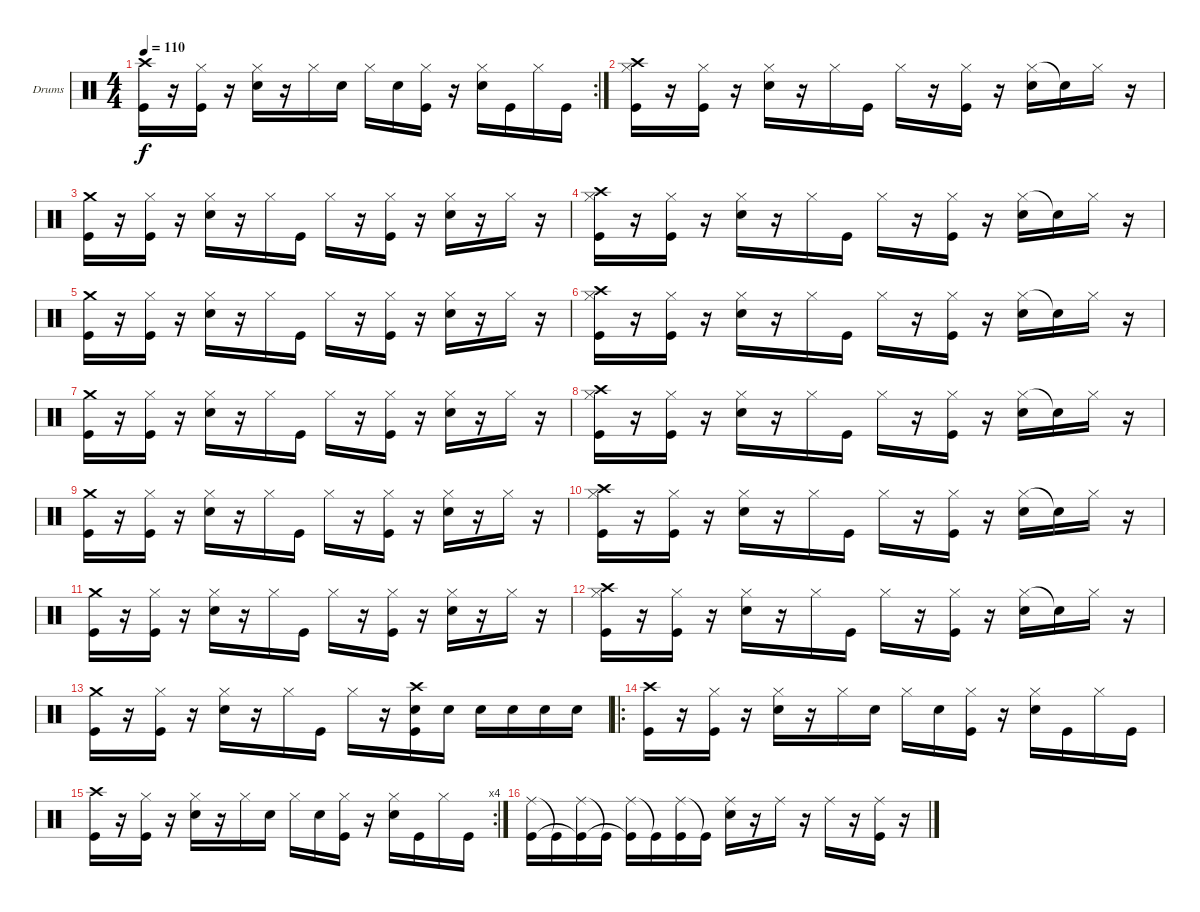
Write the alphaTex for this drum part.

\defaultSystemsLayout 4
\bracketExtendMode groupsimilarinstruments
\firstSystemTrackNameOrientation horizontal
\otherSystemsTrackNameOrientation horizontal
\track ("Павел Тетерин(Pa$ok)" "Drums") {instrument percussion}
\staff {score}
\articulation defaults
\rc 2
\ts (4 4)
\tempo 110
\clef neutral
\ks c
("Crash high (hit)" "Kick (hit)").16{dy f} r.16 ("Hi-Hat (closed)" "Kick (hit)").16 r.16 ("Hi-Hat (closed)" "Snare (hit) 2").16 r.16 "Hi-Hat (closed)".16 "Snare (hit) 2".16 "Hi-Hat (closed)".16 "Snare (hit) 2".16 ("Hi-Hat (closed)" "Kick (hit)").16 r.16 ("Hi-Hat (closed)" "Snare (hit) 2").16 "Kick (hit)".16 "Hi-Hat (closed)".16 "Kick (hit)".16 |
("Crash high (hit)" "Hi-Hat (closed)" "Kick (hit)").16 r.16 ("Hi-Hat (closed)" "Kick (hit)").16 r.16 ("Hi-Hat (closed)" "Snare (hit) 2").16 r.16 "Hi-Hat (closed)".16 "Kick (hit)".16 "Hi-Hat (closed)".16 r.16 ("Hi-Hat (closed)" "Kick (hit)").16 r.16 ("Hi-Hat (closed)" "Snare (hit) 2").16 "Snare (hit) 2"{t}.16 "Hi-Hat (closed)".16 r.16 |
("Crash medium (hit)" "Kick (hit)").16 r.16 ("Hi-Hat (closed)" "Kick (hit)").16 r.16 ("Hi-Hat (closed)" "Snare (hit) 2").16 r.16 "Hi-Hat (closed)".16 "Kick (hit)".16 "Hi-Hat (closed)".16 r.16 ("Hi-Hat (closed)" "Kick (hit)").16 r.16 ("Hi-Hat (closed)" "Snare (hit) 2").16 r.16 "Hi-Hat (closed)".16 r.16 |
("Crash high (hit)" "Hi-Hat (closed)" "Kick (hit)").16 r.16 ("Hi-Hat (closed)" "Kick (hit)").16 r.16 ("Hi-Hat (closed)" "Snare (hit) 2").16 r.16 "Hi-Hat (closed)".16 "Kick (hit)".16 "Hi-Hat (closed)".16 r.16 ("Hi-Hat (closed)" "Kick (hit)").16 r.16 ("Hi-Hat (closed)" "Snare (hit) 2").16 "Snare (hit) 2"{t}.16 "Hi-Hat (closed)".16 r.16 |
("Crash medium (hit)" "Kick (hit)").16 r.16 ("Hi-Hat (closed)" "Kick (hit)").16 r.16 ("Hi-Hat (closed)" "Snare (hit) 2").16 r.16 "Hi-Hat (closed)".16 "Kick (hit)".16 "Hi-Hat (closed)".16 r.16 ("Hi-Hat (closed)" "Kick (hit)").16 r.16 ("Hi-Hat (closed)" "Snare (hit) 2").16 r.16 "Hi-Hat (closed)".16 r.16 |
("Crash high (hit)" "Hi-Hat (closed)" "Kick (hit)").16 r.16 ("Hi-Hat (closed)" "Kick (hit)").16 r.16 ("Hi-Hat (closed)" "Snare (hit) 2").16 r.16 "Hi-Hat (closed)".16 "Kick (hit)".16 "Hi-Hat (closed)".16 r.16 ("Hi-Hat (closed)" "Kick (hit)").16 r.16 ("Hi-Hat (closed)" "Snare (hit) 2").16 "Snare (hit) 2"{t}.16 "Hi-Hat (closed)".16 r.16 |
("Crash medium (hit)" "Kick (hit)").16 r.16 ("Hi-Hat (closed)" "Kick (hit)").16 r.16 ("Hi-Hat (closed)" "Snare (hit) 2").16 r.16 "Hi-Hat (closed)".16 "Kick (hit)".16 "Hi-Hat (closed)".16 r.16 ("Hi-Hat (closed)" "Kick (hit)").16 r.16 ("Hi-Hat (closed)" "Snare (hit) 2").16 r.16 "Hi-Hat (closed)".16 r.16 |
("Crash high (hit)" "Hi-Hat (closed)" "Kick (hit)").16 r.16 ("Hi-Hat (closed)" "Kick (hit)").16 r.16 ("Hi-Hat (closed)" "Snare (hit) 2").16 r.16 "Hi-Hat (closed)".16 "Kick (hit)".16 "Hi-Hat (closed)".16 r.16 ("Hi-Hat (closed)" "Kick (hit)").16 r.16 ("Hi-Hat (closed)" "Snare (hit) 2").16 "Snare (hit) 2"{t}.16 "Hi-Hat (closed)".16 r.16 |
("Crash medium (hit)" "Kick (hit)").16 r.16 ("Hi-Hat (closed)" "Kick (hit)").16 r.16 ("Hi-Hat (closed)" "Snare (hit) 2").16 r.16 "Hi-Hat (closed)".16 "Kick (hit)".16 "Hi-Hat (closed)".16 r.16 ("Hi-Hat (closed)" "Kick (hit)").16 r.16 ("Hi-Hat (closed)" "Snare (hit) 2").16 r.16 "Hi-Hat (closed)".16 r.16 |
("Crash high (hit)" "Hi-Hat (closed)" "Kick (hit)").16 r.16 ("Hi-Hat (closed)" "Kick (hit)").16 r.16 ("Hi-Hat (closed)" "Snare (hit) 2").16 r.16 "Hi-Hat (closed)".16 "Kick (hit)".16 "Hi-Hat (closed)".16 r.16 ("Hi-Hat (closed)" "Kick (hit)").16 r.16 ("Hi-Hat (closed)" "Snare (hit) 2").16 "Snare (hit) 2"{t}.16 "Hi-Hat (closed)".16 r.16 |
("Crash medium (hit)" "Kick (hit)").16 r.16 ("Hi-Hat (closed)" "Kick (hit)").16 r.16 ("Hi-Hat (closed)" "Snare (hit) 2").16 r.16 "Hi-Hat (closed)".16 "Kick (hit)".16 "Hi-Hat (closed)".16 r.16 ("Hi-Hat (closed)" "Kick (hit)").16 r.16 ("Hi-Hat (closed)" "Snare (hit) 2").16 r.16 "Hi-Hat (closed)".16 r.16 |
("Crash high (hit)" "Hi-Hat (closed)" "Kick (hit)").16 r.16 ("Hi-Hat (closed)" "Kick (hit)").16 r.16 ("Hi-Hat (closed)" "Snare (hit) 2").16 r.16 "Hi-Hat (closed)".16 "Kick (hit)".16 "Hi-Hat (closed)".16 r.16 ("Hi-Hat (closed)" "Kick (hit)").16 r.16 ("Hi-Hat (closed)" "Snare (hit) 2").16 "Snare (hit) 2"{t}.16 "Hi-Hat (closed)".16 r.16 |
("Crash medium (hit)" "Kick (hit)").16 r.16 ("Hi-Hat (closed)" "Kick (hit)").16 r.16 ("Hi-Hat (closed)" "Snare (hit) 2").16 r.16 "Hi-Hat (closed)".16 "Kick (hit)".16 "Hi-Hat (closed)".16 r.16 ("Crash high (hit)" "Snare (hit) 2" "Kick (hit)").16 "Snare (hit) 2".16 "Snare (hit) 2".16 "Snare (hit) 2".16 "Snare (hit) 2".16 "Snare (hit) 2".16 |
\ro
("Crash high (hit)" "Kick (hit)").16 r.16 ("Hi-Hat (closed)" "Kick (hit)").16 r.16 ("Hi-Hat (closed)" "Snare (hit) 2").16 r.16 "Hi-Hat (closed)".16 "Snare (hit) 2".16 "Hi-Hat (closed)".16 "Snare (hit) 2".16 ("Hi-Hat (closed)" "Kick (hit)").16 r.16 ("Hi-Hat (closed)" "Snare (hit) 2").16 "Kick (hit)".16 "Hi-Hat (closed)".16 "Kick (hit)".16 |
\rc 4
("Crash high (hit)" "Kick (hit)").16 r.16 ("Hi-Hat (closed)" "Kick (hit)").16 r.16 ("Hi-Hat (closed)" "Snare (hit) 2").16 r.16 "Hi-Hat (closed)".16 "Snare (hit) 2".16 "Hi-Hat (closed)".16 "Snare (hit) 2".16 ("Hi-Hat (closed)" "Kick (hit)").16 r.16 ("Hi-Hat (closed)" "Snare (hit) 2").16 "Kick (hit)".16 "Hi-Hat (closed)".16 "Kick (hit)".16 |
("Ride (middle)" "Kick (hit)").16 "Kick (hit)"{t}.16 ("Ride (middle)" "Kick (hit)"{t}).16 "Kick (hit)"{t}.16 ("Ride (middle)" "Kick (hit)"{t}).16 "Kick (hit)"{t}.16 ("Ride (middle)" "Kick (hit)").16 "Kick (hit)"{t}.16 ("Ride (middle)" "Snare (hit) 2").16 r.16 "Ride (middle)".16 r.16 "Ride (middle)".16 r.16 ("Ride (middle)" "Kick (hit)").16 r.16
